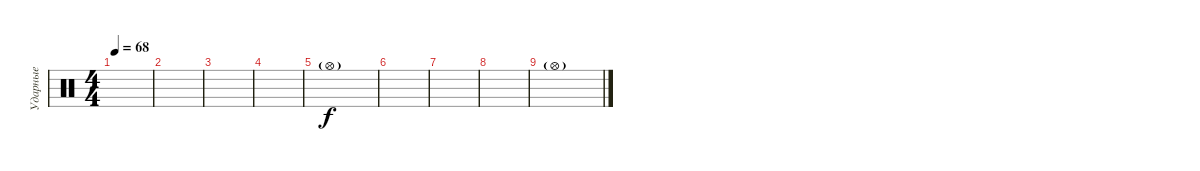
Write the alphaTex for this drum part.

\track ("Ударные" "Ударные") {instrument percussion}
\staff {score}
\articulation defaults
\ts (4 4)
\tempo 68
\clef neutral
\ks c
|
|
|
|
"Hi-Hat (open)"{g}.1 |
|
|
|
"Hi-Hat (open)"{g}.1
